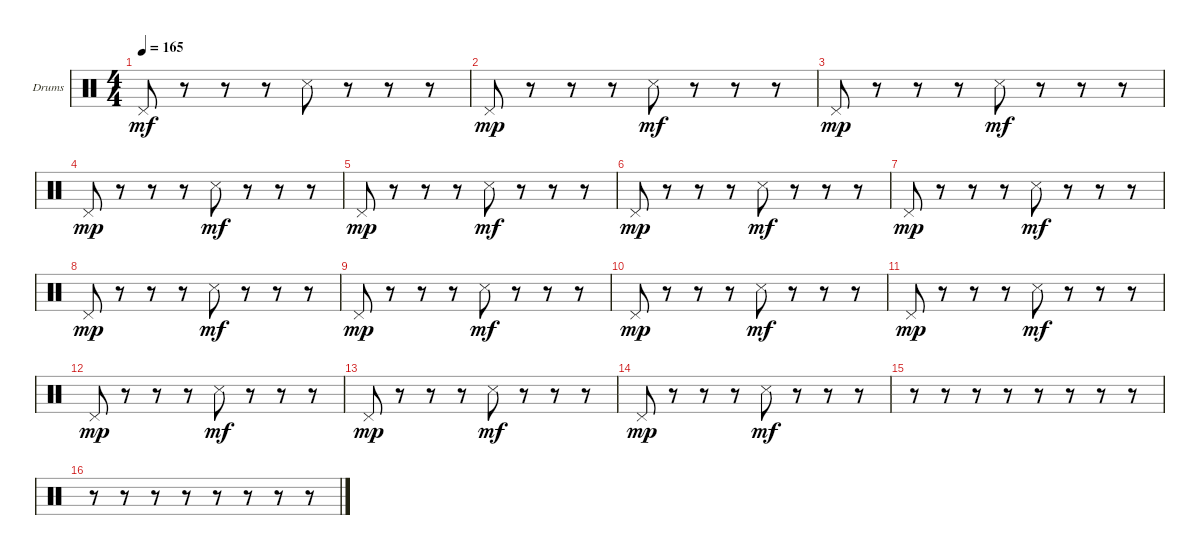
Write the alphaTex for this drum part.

\defaultSystemsLayout 4
\bracketExtendMode groupsimilarinstruments
\firstSystemTrackNameOrientation horizontal
\otherSystemsTrackNameOrientation horizontal
\track ("Drumkit" "Drums") {instrument percussion}
\staff {score}
\articulation defaults
\ts (4 4)
\tempo 165
\clef neutral
\ks c "Pedal Hi-Hat (hit)".8{dy mf}
r.8 r.8 r.8 "Snare (side stick) 3".8 r.8 r.8 r.8 |
"Pedal Hi-Hat (hit)".8{dy mp} r.8 r.8 r.8 "Snare (side stick) 3".8{dy mf} r.8 r.8 r.8 |
"Pedal Hi-Hat (hit)".8{dy mp} r.8 r.8 r.8 "Snare (side stick) 3".8{dy mf} r.8 r.8 r.8 |
"Pedal Hi-Hat (hit)".8{dy mp} r.8 r.8 r.8 "Snare (side stick) 3".8{dy mf} r.8 r.8 r.8 |
"Pedal Hi-Hat (hit)".8{dy mp} r.8 r.8 r.8 "Snare (side stick) 3".8{dy mf} r.8 r.8 r.8 |
"Pedal Hi-Hat (hit)".8{dy mp} r.8 r.8 r.8 "Snare (side stick) 3".8{dy mf} r.8 r.8 r.8 |
"Pedal Hi-Hat (hit)".8{dy mp} r.8 r.8 r.8 "Snare (side stick) 3".8{dy mf} r.8 r.8 r.8 |
"Pedal Hi-Hat (hit)".8{dy mp} r.8 r.8 r.8 "Snare (side stick) 3".8{dy mf} r.8 r.8 r.8 |
"Pedal Hi-Hat (hit)".8{dy mp} r.8 r.8 r.8 "Snare (side stick) 3".8{dy mf} r.8 r.8 r.8 |
"Pedal Hi-Hat (hit)".8{dy mp} r.8 r.8 r.8 "Snare (side stick) 3".8{dy mf} r.8 r.8 r.8 |
"Pedal Hi-Hat (hit)".8{dy mp} r.8 r.8 r.8 "Snare (side stick) 3".8{dy mf} r.8 r.8 r.8 |
"Pedal Hi-Hat (hit)".8{dy mp} r.8 r.8 r.8 "Snare (side stick) 3".8{dy mf} r.8 r.8 r.8 |
"Pedal Hi-Hat (hit)".8{dy mp} r.8 r.8 r.8 "Snare (side stick) 3".8{dy mf} r.8 r.8 r.8 |
"Pedal Hi-Hat (hit)".8{dy mp} r.8 r.8 r.8 "Snare (side stick) 3".8{dy mf} r.8 r.8 r.8 |
r.8 r.8 r.8 r.8 r.8 r.8 r.8 r.8 |
r.8 r.8 r.8 r.8 r.8 r.8 r.8 r.8
